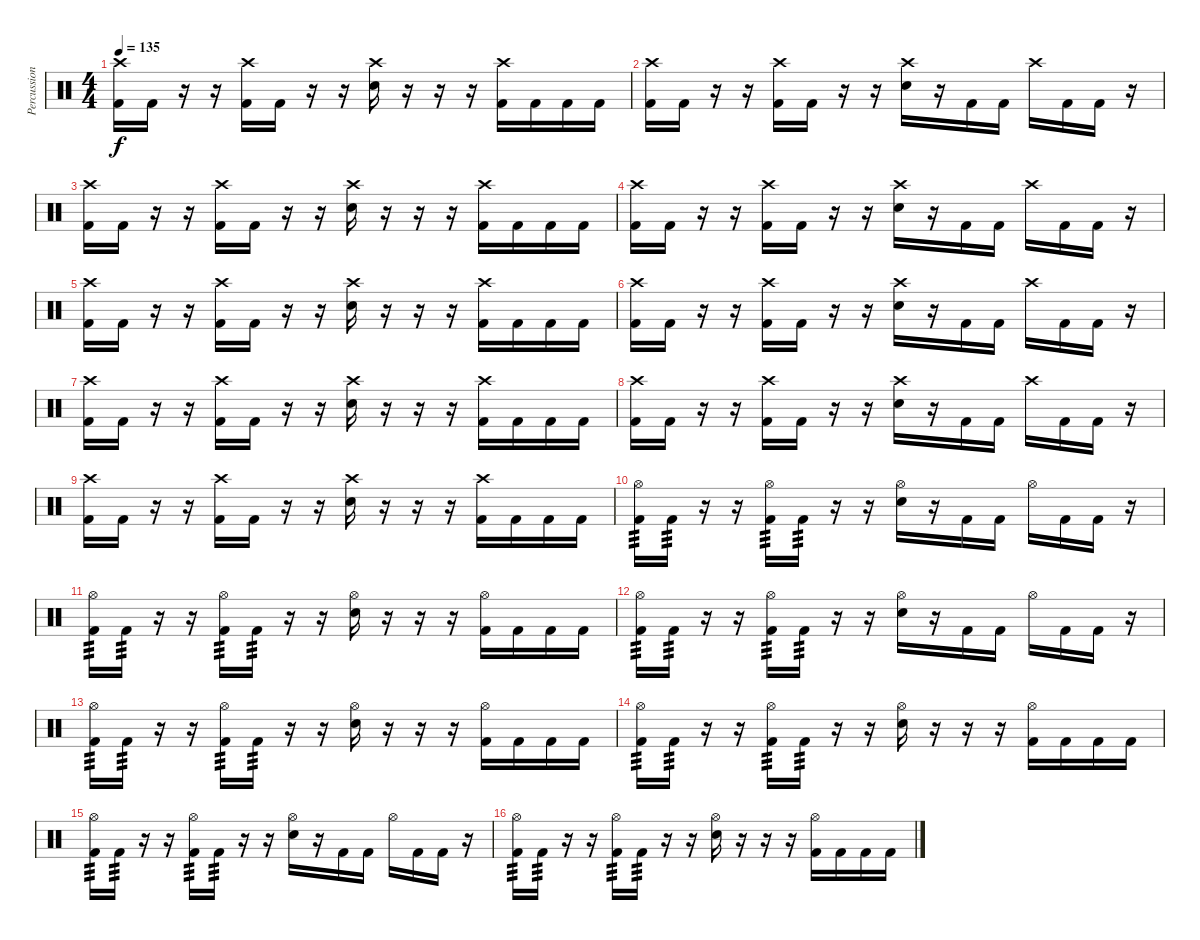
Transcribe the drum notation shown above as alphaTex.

\track ("Percussion" "Percussion") {instrument percussion}
\staff {score}
\articulation defaults
\ts (4 4)
\tempo 135
\clef neutral
\ks c
("Crash high (hit)" "Kick (hit) 2").16{dy f} "Kick (hit) 2".16 r.16 r.16 ("Crash high (hit)" "Kick (hit) 2").16 "Kick (hit) 2".16 r.16 r.16 ("Crash high (hit)" "Electric Snare (hit)").16 r.16 r.16 r.16 ("Crash high (hit)" "Kick (hit) 2").16 "Kick (hit) 2".16 "Kick (hit) 2".16 "Kick (hit) 2".16 |
("Crash high (hit)" "Kick (hit) 2").16 "Kick (hit) 2".16 r.16 r.16 ("Crash high (hit)" "Kick (hit) 2").16 "Kick (hit) 2".16 r.16 r.16 ("Crash high (hit)" "Electric Snare (hit)").16 r.16 "Kick (hit) 2".16 "Kick (hit) 2".16 "Crash high (hit)".16 "Kick (hit) 2".16 "Kick (hit) 2".16 r.16 |
("Crash high (hit)" "Kick (hit) 2").16 "Kick (hit) 2".16 r.16 r.16 ("Crash high (hit)" "Kick (hit) 2").16 "Kick (hit) 2".16 r.16 r.16 ("Crash high (hit)" "Electric Snare (hit)").16 r.16 r.16 r.16 ("Crash high (hit)" "Kick (hit) 2").16 "Kick (hit) 2".16 "Kick (hit) 2".16 "Kick (hit) 2".16 |
("Crash high (hit)" "Kick (hit) 2").16 "Kick (hit) 2".16 r.16 r.16 ("Crash high (hit)" "Kick (hit) 2").16 "Kick (hit) 2".16 r.16 r.16 ("Crash high (hit)" "Electric Snare (hit)").16 r.16 "Kick (hit) 2".16 "Kick (hit) 2".16 "Crash high (hit)".16 "Kick (hit) 2".16 "Kick (hit) 2".16 r.16 |
("Crash high (hit)" "Kick (hit) 2").16 "Kick (hit) 2".16 r.16 r.16 ("Crash high (hit)" "Kick (hit) 2").16 "Kick (hit) 2".16 r.16 r.16 ("Crash high (hit)" "Electric Snare (hit)").16 r.16 r.16 r.16 ("Crash high (hit)" "Kick (hit) 2").16 "Kick (hit) 2".16 "Kick (hit) 2".16 "Kick (hit) 2".16 |
("Crash high (hit)" "Kick (hit) 2").16 "Kick (hit) 2".16 r.16 r.16 ("Crash high (hit)" "Kick (hit) 2").16 "Kick (hit) 2".16 r.16 r.16 ("Crash high (hit)" "Electric Snare (hit)").16 r.16 "Kick (hit) 2".16 "Kick (hit) 2".16 "Crash high (hit)".16 "Kick (hit) 2".16 "Kick (hit) 2".16 r.16 |
("Crash high (hit)" "Kick (hit) 2").16 "Kick (hit) 2".16 r.16 r.16 ("Crash high (hit)" "Kick (hit) 2").16 "Kick (hit) 2".16 r.16 r.16 ("Crash high (hit)" "Electric Snare (hit)").16 r.16 r.16 r.16 ("Crash high (hit)" "Kick (hit) 2").16 "Kick (hit) 2".16 "Kick (hit) 2".16 "Kick (hit) 2".16 |
("Crash high (hit)" "Kick (hit) 2").16 "Kick (hit) 2".16 r.16 r.16 ("Crash high (hit)" "Kick (hit) 2").16 "Kick (hit) 2".16 r.16 r.16 ("Crash high (hit)" "Electric Snare (hit)").16 r.16 "Kick (hit) 2".16 "Kick (hit) 2".16 "Crash high (hit)".16 "Kick (hit) 2".16 "Kick (hit) 2".16 r.16 |
("Crash high (hit)" "Kick (hit) 2").16 "Kick (hit) 2".16 r.16 r.16 ("Crash high (hit)" "Kick (hit) 2").16 "Kick (hit) 2".16 r.16 r.16 ("Crash high (hit)" "Electric Snare (hit)").16 r.16 r.16 r.16 ("Crash high (hit)" "Kick (hit) 2").16 "Kick (hit) 2".16 "Kick (hit) 2".16 "Kick (hit) 2".16 |
("Hi-Hat (open)" "Kick (hit) 2").16{tp 3} "Kick (hit) 2".16{tp 3} r.16 r.16 ("Hi-Hat (open)" "Kick (hit) 2").16{tp 3} "Kick (hit) 2".16{tp 3} r.16 r.16 ("Hi-Hat (open)" "Electric Snare (hit)").16 r.16 "Kick (hit) 2".16 "Kick (hit) 2".16 "Hi-Hat (open)".16 "Kick (hit) 2".16 "Kick (hit) 2".16 r.16 |
("Hi-Hat (open)" "Kick (hit) 2").16{tp 3} "Kick (hit) 2".16{tp 3} r.16 r.16 ("Hi-Hat (open)" "Kick (hit) 2").16{tp 3} "Kick (hit) 2".16{tp 3} r.16 r.16 ("Hi-Hat (open)" "Electric Snare (hit)").16 r.16 r.16 r.16 ("Hi-Hat (open)" "Kick (hit) 2").16 "Kick (hit) 2".16 "Kick (hit) 2".16 "Kick (hit) 2".16 |
("Hi-Hat (open)" "Kick (hit) 2").16{tp 3} "Kick (hit) 2".16{tp 3} r.16 r.16 ("Hi-Hat (open)" "Kick (hit) 2").16{tp 3} "Kick (hit) 2".16{tp 3} r.16 r.16 ("Hi-Hat (open)" "Electric Snare (hit)").16 r.16 "Kick (hit) 2".16 "Kick (hit) 2".16 "Hi-Hat (open)".16 "Kick (hit) 2".16 "Kick (hit) 2".16 r.16 |
("Hi-Hat (open)" "Kick (hit) 2").16{tp 3} "Kick (hit) 2".16{tp 3} r.16 r.16 ("Hi-Hat (open)" "Kick (hit) 2").16{tp 3} "Kick (hit) 2".16{tp 3} r.16 r.16 ("Hi-Hat (open)" "Electric Snare (hit)").16 r.16 r.16 r.16 ("Hi-Hat (open)" "Kick (hit) 2").16 "Kick (hit) 2".16 "Kick (hit) 2".16 "Kick (hit) 2".16 |
("Hi-Hat (open)" "Kick (hit) 2").16{tp 3 volume 11} "Kick (hit) 2".16{tp 3} r.16 r.16 ("Hi-Hat (open)" "Kick (hit) 2").16{tp 3} "Kick (hit) 2".16{tp 3} r.16 r.16 ("Hi-Hat (open)" "Electric Snare (hit)").16 r.16 r.16 r.16 ("Hi-Hat (open)" "Kick (hit) 2").16 "Kick (hit) 2".16 "Kick (hit) 2".16 "Kick (hit) 2".16 |
("Hi-Hat (open)" "Kick (hit) 2").16{tp 3 volume 9} "Kick (hit) 2".16{tp 3} r.16 r.16 ("Hi-Hat (open)" "Kick (hit) 2").16{tp 3} "Kick (hit) 2".16{tp 3} r.16 r.16 ("Hi-Hat (open)" "Electric Snare (hit)").16 r.16 "Kick (hit) 2".16 "Kick (hit) 2".16 "Hi-Hat (open)".16 "Kick (hit) 2".16 "Kick (hit) 2".16 r.16 |
("Hi-Hat (open)" "Kick (hit) 2").16{tp 3 volume 7} "Kick (hit) 2".16{tp 3} r.16 r.16 ("Hi-Hat (open)" "Kick (hit) 2").16{tp 3} "Kick (hit) 2".16{tp 3} r.16 r.16 ("Hi-Hat (open)" "Electric Snare (hit)").16 r.16 r.16 r.16 ("Hi-Hat (open)" "Kick (hit) 2").16 "Kick (hit) 2".16 "Kick (hit) 2".16 "Kick (hit) 2".16
